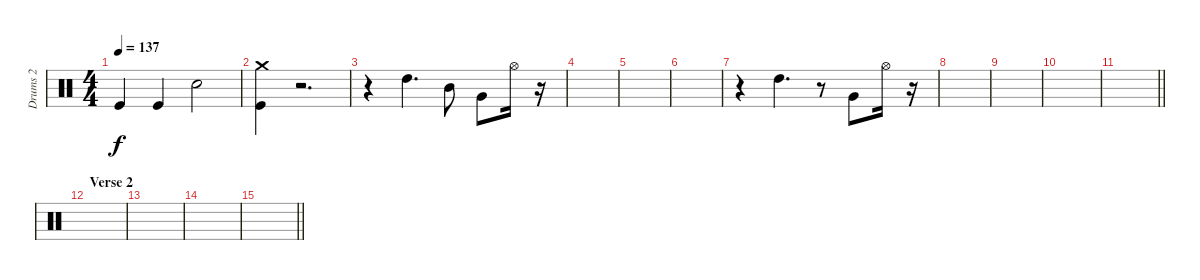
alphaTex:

\track ("Drums 2" "Drums 2") {instrument percussion}
\staff {score}
\articulation defaults
\ts (4 4)
\tempo 137
\clef neutral
\ks c "Kick (hit)".4{dy f} "Kick (hit)".4 "Snare (hit) 2".2
|
("Crash medium (hit)" "Kick (hit)").4 r.2{d} |
r.4 "High Tom (hit)".4{d} "Mid Tom (hit)".8 "Very Low Tom (hit)".8 "Hi-Hat (open)".16 r.16 |
|
|
|
r.4 "High Tom (hit)".4{d} r.8 "Very Low Tom (hit)".8 "Hi-Hat (open)".16 r.16 |
|
|
|
\barLineRight lightlight
|
\section ("" "Verse 2")
|
|
|
\barLineRight lightlight
